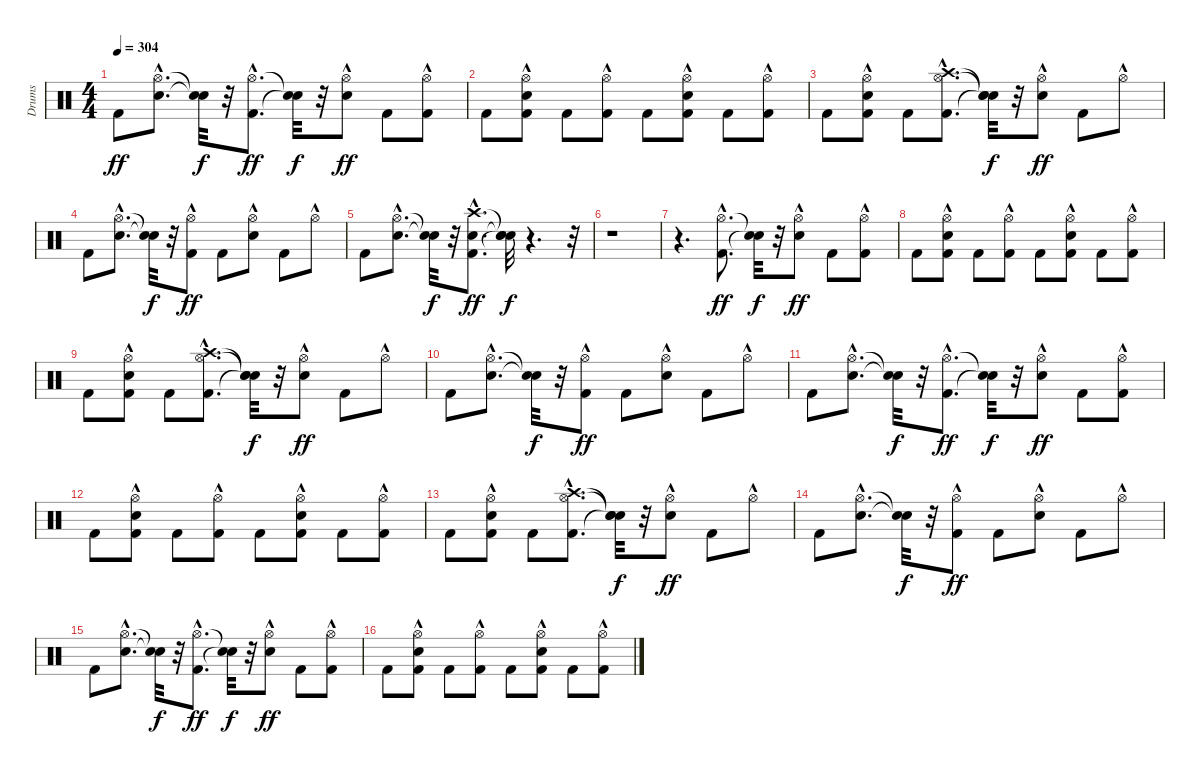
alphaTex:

\track ("Drums" "Drums") {instrument percussion}
\staff {score}
\articulation defaults
\ts (4 4)
\tempo 304
\clef neutral
\ks c "Kick (hit) 2".8{dy ff}
("Snare (hit) 2"{hac} "Hi-Hat (open)"{hac}).8{d} ("Snare (hit)"{t} "Snare (hit)"{t}).32{dy f} r.32 ("Kick (hit) 2"{hac} "Hi-Hat (open)"{hac}).8{d dy ff} ("Snare (hit)"{t} "Snare (hit)"{t}).32{dy f} r.32 ("Snare (hit) 2" "Hi-Hat (open)"{hac}).8{dy ff} "Kick (hit) 2".8 ("Kick (hit) 2" "Hi-Hat (open)"{hac}).8 |
"Kick (hit) 2".8 ("Kick (hit) 2" "Snare (hit) 2"{hac} "Hi-Hat (open)"{hac}).8 "Kick (hit) 2".8 ("Kick (hit) 2" "Hi-Hat (open)"{hac}).8 "Kick (hit) 2".8 ("Kick (hit) 2" "Snare (hit) 2"{hac} "Hi-Hat (open)"{hac}).8 "Kick (hit) 2".8 ("Kick (hit) 2" "Hi-Hat (open)"{hac}).8 |
"Kick (hit) 2".8 ("Kick (hit) 2" "Snare (hit) 2"{hac} "Hi-Hat (open)"{hac}).8 "Kick (hit) 2".8 ("Kick (hit) 2"{hac} "Hi-Hat (open)"{hac} "Crash high (hit)"{hac}).8{d} ("Snare (hit)"{t} "Snare (hit)"{t} "Snare (hit)"{t}).32{dy f} r.32 ("Snare (hit) 2" "Hi-Hat (open)"{hac}).8{dy ff} "Kick (hit) 2".8 "Hi-Hat (open)"{hac}.8 |
"Kick (hit) 2".8 ("Snare (hit) 2"{hac} "Hi-Hat (open)"{hac}).8{d} ("Snare (hit)"{t} "Snare (hit)"{t}).32{dy f} r.32 ("Kick (hit) 2" "Hi-Hat (open)"{hac}).8{dy ff} "Kick (hit) 2".8 ("Snare (hit) 2" "Hi-Hat (open)"{hac}).8 "Kick (hit) 2".8 "Hi-Hat (open)"{hac}.8 |
"Kick (hit) 2".8 ("Snare (hit) 2"{hac} "Hi-Hat (open)"{hac}).8{d} ("Snare (hit)"{t} "Snare (hit)"{t}).32{dy f} r.32 ("Kick (hit) 2"{hac} "Snare (hit) 2"{hac} "Crash high (hit)"{hac}).8{d dy ff} ("Snare (hit)"{t} "Snare (hit)"{t} "Snare (hit)"{t}).32{dy f} r.4{d} r.32 |
r.1 |
r.4{d} ("Kick (hit) 2"{hac} "Hi-Hat (open)"{hac}).8{d dy ff} ("Snare (hit)"{t} "Snare (hit)"{t}).32{dy f} r.32 ("Snare (hit) 2" "Hi-Hat (open)"{hac}).8{dy ff} "Kick (hit) 2".8 ("Kick (hit) 2" "Hi-Hat (open)"{hac}).8 |
"Kick (hit) 2".8 ("Kick (hit) 2" "Snare (hit) 2"{hac} "Hi-Hat (open)"{hac}).8 "Kick (hit) 2".8 ("Kick (hit) 2" "Hi-Hat (open)"{hac}).8 "Kick (hit) 2".8 ("Kick (hit) 2" "Snare (hit) 2"{hac} "Hi-Hat (open)"{hac}).8 "Kick (hit) 2".8 ("Kick (hit) 2" "Hi-Hat (open)"{hac}).8 |
"Kick (hit) 2".8 ("Kick (hit) 2" "Snare (hit) 2"{hac} "Hi-Hat (open)"{hac}).8 "Kick (hit) 2".8 ("Kick (hit) 2"{hac} "Hi-Hat (open)"{hac} "Crash high (hit)"{hac}).8{d} ("Snare (hit)"{t} "Snare (hit)"{t} "Snare (hit)"{t}).32{dy f} r.32 ("Snare (hit) 2" "Hi-Hat (open)"{hac}).8{dy ff} "Kick (hit) 2".8 "Hi-Hat (open)"{hac}.8 |
"Kick (hit) 2".8 ("Snare (hit) 2"{hac} "Hi-Hat (open)"{hac}).8{d} ("Snare (hit)"{t} "Snare (hit)"{t}).32{dy f} r.32 ("Kick (hit) 2" "Hi-Hat (open)"{hac}).8{dy ff} "Kick (hit) 2".8 ("Snare (hit) 2" "Hi-Hat (open)"{hac}).8 "Kick (hit) 2".8 "Hi-Hat (open)"{hac}.8 |
"Kick (hit) 2".8 ("Snare (hit) 2"{hac} "Hi-Hat (open)"{hac}).8{d} ("Snare (hit)"{t} "Snare (hit)"{t}).32{dy f} r.32 ("Kick (hit) 2"{hac} "Hi-Hat (open)"{hac}).8{d dy ff} ("Snare (hit)"{t} "Snare (hit)"{t}).32{dy f} r.32 ("Snare (hit) 2" "Hi-Hat (open)"{hac}).8{dy ff} "Kick (hit) 2".8 ("Kick (hit) 2" "Hi-Hat (open)"{hac}).8 |
"Kick (hit) 2".8 ("Kick (hit) 2" "Snare (hit) 2"{hac} "Hi-Hat (open)"{hac}).8 "Kick (hit) 2".8 ("Kick (hit) 2" "Hi-Hat (open)"{hac}).8 "Kick (hit) 2".8 ("Kick (hit) 2" "Snare (hit) 2"{hac} "Hi-Hat (open)"{hac}).8 "Kick (hit) 2".8 ("Kick (hit) 2" "Hi-Hat (open)"{hac}).8 |
"Kick (hit) 2".8 ("Kick (hit) 2" "Snare (hit) 2"{hac} "Hi-Hat (open)"{hac}).8 "Kick (hit) 2".8 ("Kick (hit) 2"{hac} "Hi-Hat (open)"{hac} "Crash high (hit)"{hac}).8{d} ("Snare (hit)"{t} "Snare (hit)"{t} "Snare (hit)"{t}).32{dy f} r.32 ("Snare (hit) 2" "Hi-Hat (open)"{hac}).8{dy ff} "Kick (hit) 2".8 "Hi-Hat (open)"{hac}.8 |
"Kick (hit) 2".8 ("Snare (hit) 2"{hac} "Hi-Hat (open)"{hac}).8{d} ("Snare (hit)"{t} "Snare (hit)"{t}).32{dy f} r.32 ("Kick (hit) 2" "Hi-Hat (open)"{hac}).8{dy ff} "Kick (hit) 2".8 ("Snare (hit) 2" "Hi-Hat (open)"{hac}).8 "Kick (hit) 2".8 "Hi-Hat (open)"{hac}.8 |
"Kick (hit) 2".8 ("Snare (hit) 2"{hac} "Hi-Hat (open)"{hac}).8{d} ("Snare (hit)"{t} "Snare (hit)"{t}).32{dy f} r.32 ("Kick (hit) 2"{hac} "Hi-Hat (open)"{hac}).8{d dy ff} ("Snare (hit)"{t} "Snare (hit)"{t}).32{dy f} r.32 ("Snare (hit) 2" "Hi-Hat (open)"{hac}).8{dy ff} "Kick (hit) 2".8 ("Kick (hit) 2" "Hi-Hat (open)"{hac}).8 |
"Kick (hit) 2".8 ("Kick (hit) 2" "Snare (hit) 2"{hac} "Hi-Hat (open)"{hac}).8 "Kick (hit) 2".8 ("Kick (hit) 2" "Hi-Hat (open)"{hac}).8 "Kick (hit) 2".8 ("Kick (hit) 2" "Snare (hit) 2"{hac} "Hi-Hat (open)"{hac}).8 "Kick (hit) 2".8 ("Kick (hit) 2" "Hi-Hat (open)"{hac}).8
